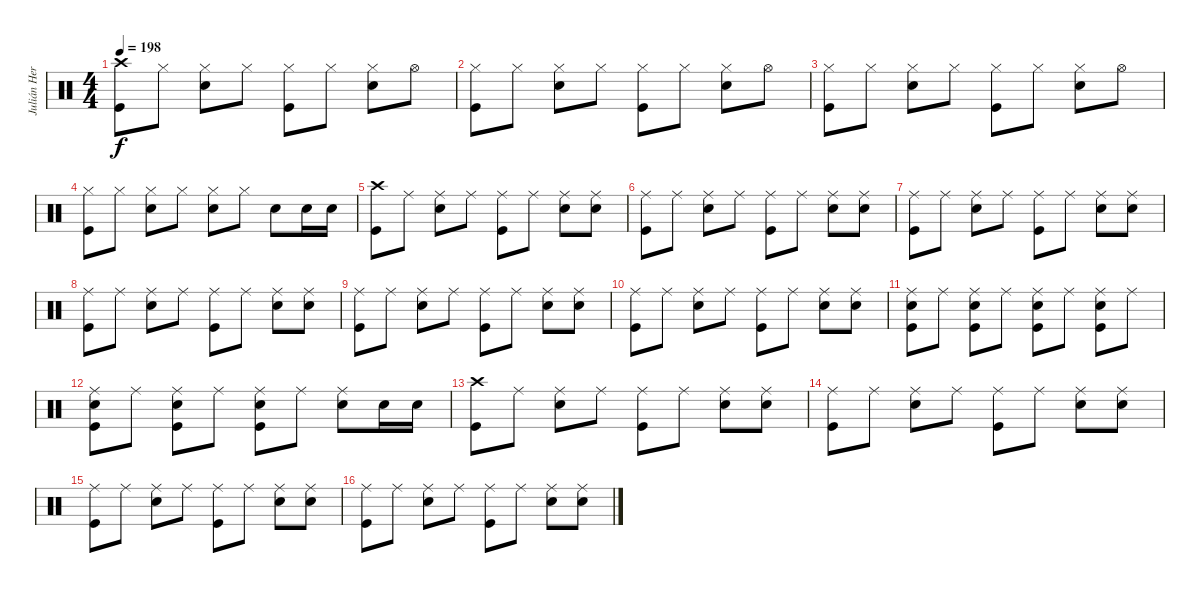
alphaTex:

\track ("Julián Hernández - Batería" "Julián Her") {instrument percussion}
\staff {score}
\articulation defaults
\ts (4 4)
\tempo 198
\clef neutral
\ks c
("Crash high (hit)" "Kick (hit)").8{dy f} "Hi-Hat (closed)".8 ("Hi-Hat (closed)" "Electric Snare (hit)").8 "Hi-Hat (closed)".8 ("Hi-Hat (closed)" "Kick (hit)").8 "Hi-Hat (closed)".8 ("Hi-Hat (closed)" "Electric Snare (hit)").8 "Hi-Hat (open)".8 |
("Hi-Hat (closed)" "Kick (hit)").8 "Hi-Hat (closed)".8 ("Hi-Hat (closed)" "Electric Snare (hit)").8 "Hi-Hat (closed)".8 ("Hi-Hat (closed)" "Kick (hit)").8 "Hi-Hat (closed)".8 ("Hi-Hat (closed)" "Electric Snare (hit)").8 "Hi-Hat (open)".8 |
("Hi-Hat (closed)" "Kick (hit)").8 "Hi-Hat (closed)".8 ("Hi-Hat (closed)" "Electric Snare (hit)").8 "Hi-Hat (closed)".8 ("Hi-Hat (closed)" "Kick (hit)").8 "Hi-Hat (closed)".8 ("Hi-Hat (closed)" "Electric Snare (hit)").8 "Hi-Hat (open)".8 |
("Hi-Hat (closed)" "Kick (hit)").8 "Hi-Hat (closed)".8 ("Hi-Hat (closed)" "Electric Snare (hit)").8 "Hi-Hat (closed)".8 ("Hi-Hat (closed)" "Electric Snare (hit)").8 "Hi-Hat (closed)".8 "Electric Snare (hit)".8 "Electric Snare (hit)".16 "Electric Snare (hit)".16 |
("Crash high (hit)" "Kick (hit)").8 "Ride (middle)".8 ("Ride (middle)" "Electric Snare (hit)").8 "Ride (middle)".8 ("Ride (middle)" "Kick (hit)").8 "Ride (middle)".8 ("Ride (middle)" "Electric Snare (hit)").8 ("Ride (middle)" "Electric Snare (hit)").8 |
("Ride (middle)" "Kick (hit)").8 "Ride (middle)".8 ("Ride (middle)" "Electric Snare (hit)").8 "Ride (middle)".8 ("Ride (middle)" "Kick (hit)").8 "Ride (middle)".8 ("Ride (middle)" "Electric Snare (hit)").8 ("Ride (middle)" "Electric Snare (hit)").8 |
("Ride (middle)" "Kick (hit)").8 "Ride (middle)".8 ("Ride (middle)" "Electric Snare (hit)").8 "Ride (middle)".8 ("Ride (middle)" "Kick (hit)").8 "Ride (middle)".8 ("Ride (middle)" "Electric Snare (hit)").8 ("Ride (middle)" "Electric Snare (hit)").8 |
("Ride (middle)" "Kick (hit)").8 "Ride (middle)".8 ("Ride (middle)" "Electric Snare (hit)").8 "Ride (middle)".8 ("Ride (middle)" "Kick (hit)").8 "Ride (middle)".8 ("Ride (middle)" "Electric Snare (hit)").8 ("Ride (middle)" "Electric Snare (hit)").8 |
("Ride (middle)" "Kick (hit)").8 "Ride (middle)".8 ("Ride (middle)" "Electric Snare (hit)").8 "Ride (middle)".8 ("Ride (middle)" "Kick (hit)").8 "Ride (middle)".8 ("Ride (middle)" "Electric Snare (hit)").8 ("Ride (middle)" "Electric Snare (hit)").8 |
("Ride (middle)" "Kick (hit)").8 "Ride (middle)".8 ("Ride (middle)" "Electric Snare (hit)").8 "Ride (middle)".8 ("Ride (middle)" "Kick (hit)").8 "Ride (middle)".8 ("Ride (middle)" "Electric Snare (hit)").8 ("Ride (middle)" "Electric Snare (hit)").8 |
("Ride (middle)" "Electric Snare (hit)" "Kick (hit)").8 "Ride (middle)".8 ("Ride (middle)" "Electric Snare (hit)" "Kick (hit)").8 "Ride (middle)".8 ("Ride (middle)" "Electric Snare (hit)" "Kick (hit)").8 "Ride (middle)".8 ("Ride (middle)" "Electric Snare (hit)" "Kick (hit)").8 "Ride (middle)".8 |
("Ride (middle)" "Electric Snare (hit)" "Kick (hit)").8 "Ride (middle)".8 ("Ride (middle)" "Electric Snare (hit)" "Kick (hit)").8 "Ride (middle)".8 ("Ride (middle)" "Electric Snare (hit)" "Kick (hit)").8 "Ride (middle)".8 ("Ride (middle)" "Electric Snare (hit)").8 "Electric Snare (hit)".16 "Electric Snare (hit)".16 |
("Crash high (hit)" "Kick (hit)").8 "Ride (middle)".8 ("Ride (middle)" "Electric Snare (hit)").8 "Ride (middle)".8 ("Ride (middle)" "Kick (hit)").8 "Ride (middle)".8 ("Ride (middle)" "Electric Snare (hit)").8 ("Ride (middle)" "Electric Snare (hit)").8 |
("Ride (middle)" "Kick (hit)").8 "Ride (middle)".8 ("Ride (middle)" "Electric Snare (hit)").8 "Ride (middle)".8 ("Ride (middle)" "Kick (hit)").8 "Ride (middle)".8 ("Ride (middle)" "Electric Snare (hit)").8 ("Ride (middle)" "Electric Snare (hit)").8 |
("Ride (middle)" "Kick (hit)").8 "Ride (middle)".8 ("Ride (middle)" "Electric Snare (hit)").8 "Ride (middle)".8 ("Ride (middle)" "Kick (hit)").8 "Ride (middle)".8 ("Ride (middle)" "Electric Snare (hit)").8 ("Ride (middle)" "Electric Snare (hit)").8 |
("Ride (middle)" "Kick (hit)").8 "Ride (middle)".8 ("Ride (middle)" "Electric Snare (hit)").8 "Ride (middle)".8 ("Ride (middle)" "Kick (hit)").8 "Ride (middle)".8 ("Ride (middle)" "Electric Snare (hit)").8 ("Ride (middle)" "Electric Snare (hit)").8
